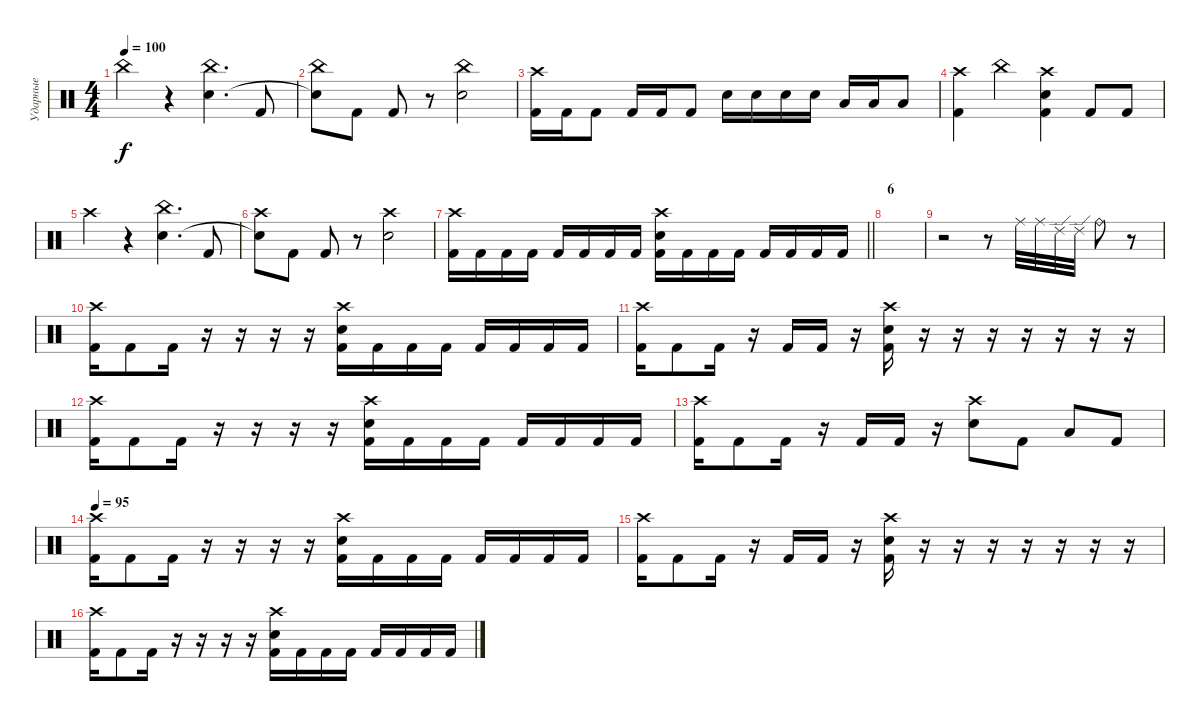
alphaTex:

\track ("Ударные" "Ударные") {instrument percussion}
\staff {score}
\articulation defaults
\ts (4 4)
\tempo 100
\clef neutral
\ks c "China (hit)".4{dy f}
r.4 ("China (hit)" "Electric Snare (hit)").4{d} "Kick (hit) 2".8 |
("China (hit)" "Snare (hit)"{t}).8 "Kick (hit) 2".8 "Kick (hit) 2".8 r.8 ("China (hit)" "Electric Snare (hit)").2 |
("Crash high (hit)" "Kick (hit) 2").16 "Kick (hit) 2".16 "Kick (hit) 2".8 "Kick (hit) 2".16 "Kick (hit) 2".16 "Kick (hit) 2".8 "Electric Snare (hit)".16 "Electric Snare (hit)".16 "Electric Snare (hit)".16 "Electric Snare (hit)".16 "Low Tom (hit)".16 "Low Tom (hit)".16 "Low Tom (hit)".8 |
("Crash high (hit)" "Kick (hit) 2").4 "China (hit)".4 ("Crash high (hit)" "Electric Snare (hit)" "Kick (hit) 2").4 "Kick (hit) 2".8 "Kick (hit) 2".8 |
"Crash high (hit)".4 r.4 ("China (hit)" "Electric Snare (hit)").4{d} "Kick (hit) 2".8 |
("Crash high (hit)" "Snare (hit)"{t}).8 "Kick (hit) 2".8 "Kick (hit) 2".8 r.8 ("Crash high (hit)" "Electric Snare (hit)").2 |
\barLineRight lightlight
("Crash high (hit)" "Kick (hit) 2").16 "Kick (hit) 2".16 "Kick (hit) 2".16 "Kick (hit) 2".16 "Kick (hit) 2".16 "Kick (hit) 2".16 "Kick (hit) 2".16 "Kick (hit) 2".16 ("Crash high (hit)" "Electric Snare (hit)" "Kick (hit) 2").16 "Kick (hit) 2".16 "Kick (hit) 2".16 "Kick (hit) 2".16 "Kick (hit) 2".16 "Kick (hit) 2".16 "Kick (hit) 2".16 "Kick (hit) 2".16 |
\section ("" "6")
|
r.2 r.8 "Ride (middle)".32 "Ride (middle)".32 "Ride (edge) 2".32 "Ride (edge) 2".32 "Ride (bell)".8 r.8 |
("Crash high (hit)" "Kick (hit) 2").16 "Kick (hit) 2".8 "Kick (hit) 2".16 r.16 r.16 r.16 r.16 ("Crash high (hit)" "Electric Snare (hit)" "Kick (hit) 2").16 "Kick (hit) 2".16 "Kick (hit) 2".16 "Kick (hit) 2".16 "Kick (hit) 2".16 "Kick (hit) 2".16 "Kick (hit) 2".16 "Kick (hit) 2".16 |
("Crash high (hit)" "Kick (hit) 2").16 "Kick (hit) 2".8 "Kick (hit) 2".16 r.16 "Kick (hit) 2".16 "Kick (hit) 2".16 r.16 ("Crash high (hit)" "Electric Snare (hit)" "Kick (hit) 2").16 r.16 r.16 r.16 r.16 r.16 r.16 r.16 |
("Crash high (hit)" "Kick (hit) 2").16 "Kick (hit) 2".8 "Kick (hit) 2".16 r.16 r.16 r.16 r.16 ("Crash high (hit)" "Electric Snare (hit)" "Kick (hit) 2").16 "Kick (hit) 2".16 "Kick (hit) 2".16 "Kick (hit) 2".16 "Kick (hit) 2".16 "Kick (hit) 2".16 "Kick (hit) 2".16 "Kick (hit) 2".16 |
("Crash high (hit)" "Kick (hit) 2").16 "Kick (hit) 2".8 "Kick (hit) 2".16 r.16 "Kick (hit) 2".16 "Kick (hit) 2".16 r.16 ("Crash high (hit)" "Electric Snare (hit)").8 "Kick (hit) 2".8 "Low Tom (hit)".8 "Kick (hit) 2".8 |
\tempo 95
("Crash high (hit)" "Kick (hit) 2").16 "Kick (hit) 2".8 "Kick (hit) 2".16 r.16 r.16 r.16 r.16 ("Crash high (hit)" "Electric Snare (hit)" "Kick (hit) 2").16 "Kick (hit) 2".16 "Kick (hit) 2".16 "Kick (hit) 2".16 "Kick (hit) 2".16 "Kick (hit) 2".16 "Kick (hit) 2".16 "Kick (hit) 2".16 |
("Crash high (hit)" "Kick (hit) 2").16 "Kick (hit) 2".8 "Kick (hit) 2".16 r.16 "Kick (hit) 2".16 "Kick (hit) 2".16 r.16 ("Crash high (hit)" "Electric Snare (hit)" "Kick (hit) 2").16 r.16 r.16 r.16 r.16 r.16 r.16 r.16 |
("Crash high (hit)" "Kick (hit) 2").16 "Kick (hit) 2".8 "Kick (hit) 2".16 r.16 r.16 r.16 r.16 ("Crash high (hit)" "Electric Snare (hit)" "Kick (hit) 2").16 "Kick (hit) 2".16 "Kick (hit) 2".16 "Kick (hit) 2".16 "Kick (hit) 2".16 "Kick (hit) 2".16 "Kick (hit) 2".16 "Kick (hit) 2".16
